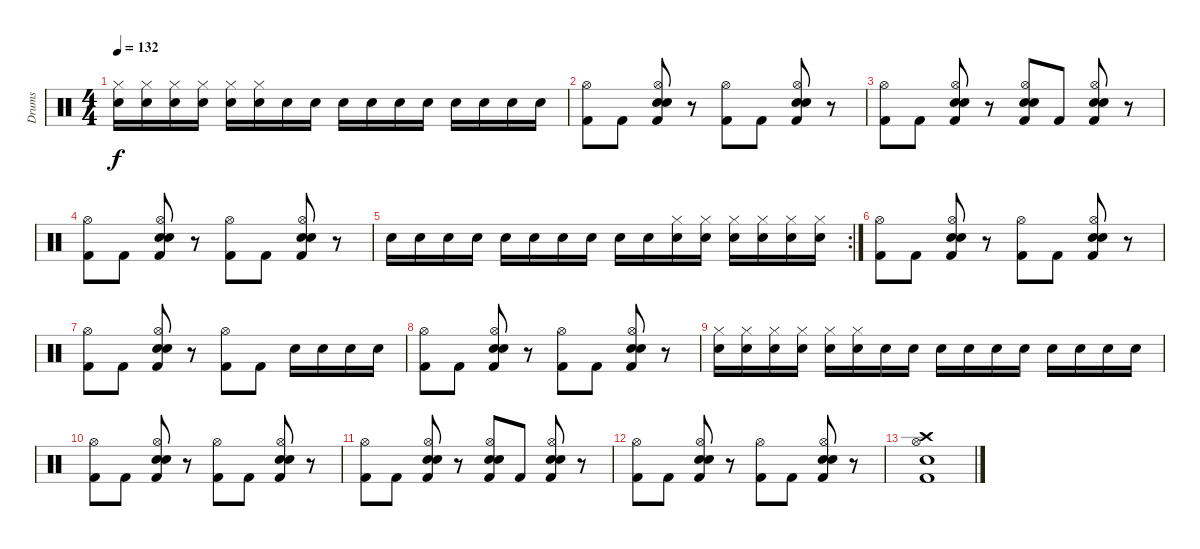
\track ("Drums" "Drums") {instrument percussion}
\staff {score}
\articulation defaults
\ts (4 4)
\tempo 132
\clef neutral
\ks c
("Hi-Hat (closed)" "Electric Snare (hit)").16{dy f} ("Hi-Hat (closed)" "Electric Snare (hit)").16 ("Hi-Hat (closed)" "Electric Snare (hit)").16 ("Hi-Hat (closed)" "Electric Snare (hit)").16 ("Hi-Hat (closed)" "Electric Snare (hit)").16 ("Hi-Hat (closed)" "Electric Snare (hit)").16 "Electric Snare (hit)".16 "Electric Snare (hit)".16 "Electric Snare (hit)".16 "Electric Snare (hit)".16 "Snare (hit) 2".16 "Snare (hit) 2".16 "Snare (hit) 2".16 "Snare (hit) 2".16 "Snare (hit) 2".16 "Snare (hit) 2".16 |
("Hi-Hat (open)" "Kick (hit) 2").8 "Kick (hit) 2".8 ("Hi-Hat (open)" "Electric Snare (hit)" "Snare (hit) 2" "Kick (hit) 2").8 r.8 ("Hi-Hat (open)" "Kick (hit) 2").8 "Kick (hit) 2".8 ("Hi-Hat (open)" "Electric Snare (hit)" "Snare (hit) 2" "Kick (hit) 2").8 r.8 |
("Hi-Hat (open)" "Kick (hit) 2").8 "Kick (hit) 2".8 ("Hi-Hat (open)" "Electric Snare (hit)" "Snare (hit) 2" "Kick (hit) 2").8 r.8 ("Hi-Hat (open)" "Electric Snare (hit)" "Snare (hit) 2" "Kick (hit) 2").8 "Kick (hit) 2".8 ("Hi-Hat (open)" "Electric Snare (hit)" "Snare (hit) 2" "Kick (hit) 2").8 r.8 |
("Hi-Hat (open)" "Kick (hit) 2").8 "Kick (hit) 2".8 ("Hi-Hat (open)" "Electric Snare (hit)" "Snare (hit) 2" "Kick (hit) 2").8 r.8 ("Hi-Hat (open)" "Kick (hit) 2").8 "Kick (hit) 2".8 ("Hi-Hat (open)" "Electric Snare (hit)" "Snare (hit) 2" "Kick (hit) 2").8 r.8 |
\rc 2 "Snare (hit) 2".16 "Snare (hit) 2".16 "Snare (hit) 2".16 "Snare (hit) 2".16 "Snare (hit) 2".16 "Snare (hit) 2".16 "Electric Snare (hit)".16 "Electric Snare (hit)".16 "Electric Snare (hit)".16 "Electric Snare (hit)".16
("Hi-Hat (closed)" "Electric Snare (hit)").16 ("Hi-Hat (closed)" "Electric Snare (hit)").16 ("Hi-Hat (closed)" "Electric Snare (hit)").16 ("Hi-Hat (closed)" "Electric Snare (hit)").16 ("Hi-Hat (closed)" "Electric Snare (hit)").16 ("Hi-Hat (closed)" "Electric Snare (hit)").16 |
("Hi-Hat (open)" "Kick (hit) 2").8 "Kick (hit) 2".8 ("Hi-Hat (open)" "Electric Snare (hit)" "Snare (hit) 2" "Kick (hit) 2").8 r.8 ("Hi-Hat (open)" "Kick (hit) 2").8 "Kick (hit) 2".8 ("Hi-Hat (open)" "Electric Snare (hit)" "Snare (hit) 2" "Kick (hit) 2").8 r.8 |
("Hi-Hat (open)" "Kick (hit) 2").8 "Kick (hit) 2".8 ("Hi-Hat (open)" "Electric Snare (hit)" "Snare (hit) 2" "Kick (hit) 2").8 r.8 ("Hi-Hat (open)" "Kick (hit) 2").8 "Kick (hit) 2".8 "Snare (hit) 2".16 "Snare (hit) 2".16 "Snare (hit) 2".16 "Snare (hit) 2".16 |
("Hi-Hat (open)" "Kick (hit) 2").8 "Kick (hit) 2".8 ("Hi-Hat (open)" "Electric Snare (hit)" "Snare (hit) 2" "Kick (hit) 2").8 r.8 ("Hi-Hat (open)" "Kick (hit) 2").8 "Kick (hit) 2".8 ("Hi-Hat (open)" "Electric Snare (hit)" "Snare (hit) 2" "Kick (hit) 2").8 r.8 |
("Hi-Hat (closed)" "Electric Snare (hit)").16 ("Hi-Hat (closed)" "Electric Snare (hit)").16 ("Hi-Hat (closed)" "Electric Snare (hit)").16 ("Hi-Hat (closed)" "Electric Snare (hit)").16 ("Hi-Hat (closed)" "Electric Snare (hit)").16 ("Hi-Hat (closed)" "Electric Snare (hit)").16 "Electric Snare (hit)".16 "Electric Snare (hit)".16 "Electric Snare (hit)".16 "Electric Snare (hit)".16 "Snare (hit) 2".16 "Snare (hit) 2".16 "Snare (hit) 2".16 "Snare (hit) 2".16 "Snare (hit) 2".16 "Snare (hit) 2".16 |
("Hi-Hat (open)" "Kick (hit) 2").8 "Kick (hit) 2".8 ("Hi-Hat (open)" "Electric Snare (hit)" "Snare (hit) 2" "Kick (hit) 2").8 r.8 ("Hi-Hat (open)" "Kick (hit) 2").8 "Kick (hit) 2".8 ("Hi-Hat (open)" "Electric Snare (hit)" "Snare (hit) 2" "Kick (hit) 2").8 r.8 |
("Hi-Hat (open)" "Kick (hit) 2").8 "Kick (hit) 2".8 ("Hi-Hat (open)" "Electric Snare (hit)" "Snare (hit) 2" "Kick (hit) 2").8 r.8 ("Hi-Hat (open)" "Electric Snare (hit)" "Snare (hit) 2" "Kick (hit) 2").8 "Kick (hit) 2".8 ("Hi-Hat (open)" "Electric Snare (hit)" "Snare (hit) 2" "Kick (hit) 2").8 r.8 |
("Hi-Hat (open)" "Kick (hit) 2").8 "Kick (hit) 2".8 ("Hi-Hat (open)" "Electric Snare (hit)" "Snare (hit) 2" "Kick (hit) 2").8 r.8 ("Hi-Hat (open)" "Kick (hit) 2").8 "Kick (hit) 2".8 ("Hi-Hat (open)" "Electric Snare (hit)" "Snare (hit) 2" "Kick (hit) 2").8 r.8 |
("Crash high (hit)" "Hi-Hat (open)" "Snare (hit) 2" "Kick (hit) 2").1
